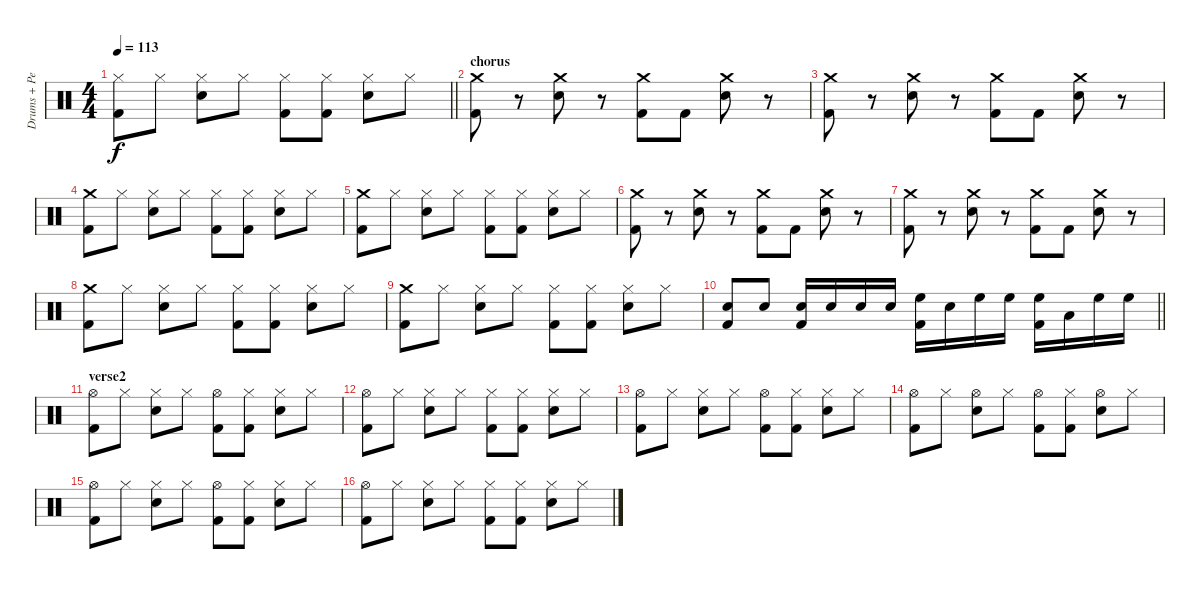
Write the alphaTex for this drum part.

\track ("Drums + Percussion" "Drums + Pe") {instrument percussion}
\staff {score}
\articulation defaults
\ts (4 4)
\tempo 113
\clef neutral
\barLineRight lightlight
\ks c
("Hi-Hat (closed)" "Kick (hit) 2").8{dy f} "Hi-Hat (closed)".8 ("Hi-Hat (closed)" "Snare (hit) 2").8 "Hi-Hat (closed)".8 ("Hi-Hat (closed)" "Kick (hit) 2").8 ("Hi-Hat (closed)" "Kick (hit) 2").8 ("Hi-Hat (closed)" "Snare (hit) 2").8 "Hi-Hat (closed)".8 |
\section ("" "chorus")
("Crash medium (hit)" "Kick (hit) 2").8 r.8 ("Crash medium (hit)" "Snare (hit) 2").8 r.8 ("Crash medium (hit)" "Kick (hit) 2").8 "Kick (hit) 2".8 ("Crash medium (hit)" "Snare (hit) 2").8 r.8 |
("Crash medium (hit)" "Kick (hit) 2").8 r.8 ("Crash medium (hit)" "Snare (hit) 2").8 r.8 ("Crash medium (hit)" "Kick (hit) 2").8 "Kick (hit) 2".8 ("Crash medium (hit)" "Snare (hit) 2").8 r.8 |
("Crash medium (hit)" "Kick (hit) 2").8 "Hi-Hat (closed)".8 ("Hi-Hat (closed)" "Snare (hit) 2").8 "Hi-Hat (closed)".8 ("Hi-Hat (closed)" "Kick (hit) 2").8 ("Hi-Hat (closed)" "Kick (hit) 2").8 ("Hi-Hat (closed)" "Snare (hit) 2").8 "Hi-Hat (closed)".8 |
("Crash medium (hit)" "Kick (hit) 2").8 "Hi-Hat (closed)".8 ("Hi-Hat (closed)" "Snare (hit) 2").8 "Hi-Hat (closed)".8 ("Hi-Hat (closed)" "Kick (hit) 2").8 ("Hi-Hat (closed)" "Kick (hit) 2").8 ("Hi-Hat (closed)" "Snare (hit) 2").8 "Hi-Hat (closed)".8 |
("Crash medium (hit)" "Kick (hit) 2").8 r.8 ("Crash medium (hit)" "Snare (hit) 2").8 r.8 ("Crash medium (hit)" "Kick (hit) 2").8 "Kick (hit) 2".8 ("Crash medium (hit)" "Snare (hit) 2").8 r.8 |
("Crash medium (hit)" "Kick (hit) 2").8 r.8 ("Crash medium (hit)" "Snare (hit) 2").8 r.8 ("Crash medium (hit)" "Kick (hit) 2").8 "Kick (hit) 2".8 ("Crash medium (hit)" "Snare (hit) 2").8 r.8 |
("Crash medium (hit)" "Kick (hit) 2").8 "Hi-Hat (closed)".8 ("Hi-Hat (closed)" "Snare (hit) 2").8 "Hi-Hat (closed)".8 ("Hi-Hat (closed)" "Kick (hit) 2").8 ("Hi-Hat (closed)" "Kick (hit) 2").8 ("Hi-Hat (closed)" "Snare (hit) 2").8 "Hi-Hat (closed)".8 |
("Crash medium (hit)" "Kick (hit) 2").8 "Hi-Hat (closed)".8 ("Hi-Hat (closed)" "Snare (hit) 2").8 "Hi-Hat (closed)".8 ("Hi-Hat (closed)" "Kick (hit) 2").8 ("Hi-Hat (closed)" "Kick (hit) 2").8 ("Hi-Hat (closed)" "Snare (hit) 2").8 "Hi-Hat (closed)".8 |
\barLineRight lightlight
("Snare (hit) 2" "Kick (hit) 2").8 "Snare (hit) 2".8 ("Snare (hit) 2" "Kick (hit) 2").16 "Snare (hit) 2".16 "Snare (hit) 2".16 "Snare (hit) 2".16 ("High Floor Tom (hit)" "Kick (hit) 2").16 "Snare (hit) 2".16 "High Floor Tom (hit)".16 "High Floor Tom (hit)".16 ("High Floor Tom (hit)" "Kick (hit) 2").16 "Low Tom (hit)".16 "High Floor Tom (hit)".16 "High Floor Tom (hit)".16 |
\section ("" "verse2")
("Hi-Hat (open)" "Kick (hit) 2").8 "Hi-Hat (closed)".8 ("Hi-Hat (closed)" "Snare (hit) 2").8 "Hi-Hat (closed)".8 ("Hi-Hat (open)" "Kick (hit) 2").8 ("Hi-Hat (closed)" "Kick (hit) 2").8 ("Hi-Hat (closed)" "Snare (hit) 2").8 "Hi-Hat (closed)".8 |
("Hi-Hat (open)" "Kick (hit) 2").8 "Hi-Hat (closed)".8 ("Hi-Hat (closed)" "Snare (hit) 2").8 "Hi-Hat (closed)".8 ("Hi-Hat (closed)" "Kick (hit) 2").8 ("Hi-Hat (closed)" "Kick (hit) 2").8 ("Hi-Hat (closed)" "Snare (hit) 2").8 "Hi-Hat (closed)".8 |
("Hi-Hat (open)" "Kick (hit) 2").8 "Hi-Hat (closed)".8 ("Hi-Hat (closed)" "Snare (hit) 2").8 "Hi-Hat (closed)".8 ("Hi-Hat (open)" "Kick (hit) 2").8 ("Hi-Hat (closed)" "Kick (hit) 2").8 ("Hi-Hat (closed)" "Snare (hit) 2").8 "Hi-Hat (closed)".8 |
("Hi-Hat (open)" "Kick (hit) 2").8 "Hi-Hat (closed)".8 ("Hi-Hat (open)" "Snare (hit) 2").8 "Hi-Hat (closed)".8 ("Hi-Hat (open)" "Kick (hit) 2").8 ("Hi-Hat (closed)" "Kick (hit) 2").8 ("Hi-Hat (open)" "Snare (hit) 2").8 "Hi-Hat (closed)".8 |
("Hi-Hat (open)" "Kick (hit) 2").8 "Hi-Hat (closed)".8 ("Hi-Hat (closed)" "Snare (hit) 2").8 "Hi-Hat (closed)".8 ("Hi-Hat (open)" "Kick (hit) 2").8 ("Hi-Hat (closed)" "Kick (hit) 2").8 ("Hi-Hat (closed)" "Snare (hit) 2").8 "Hi-Hat (closed)".8 |
("Hi-Hat (open)" "Kick (hit) 2").8 "Hi-Hat (closed)".8 ("Hi-Hat (closed)" "Snare (hit) 2").8 "Hi-Hat (closed)".8 ("Hi-Hat (closed)" "Kick (hit) 2").8 ("Hi-Hat (closed)" "Kick (hit) 2").8 ("Hi-Hat (closed)" "Snare (hit) 2").8 "Hi-Hat (closed)".8
